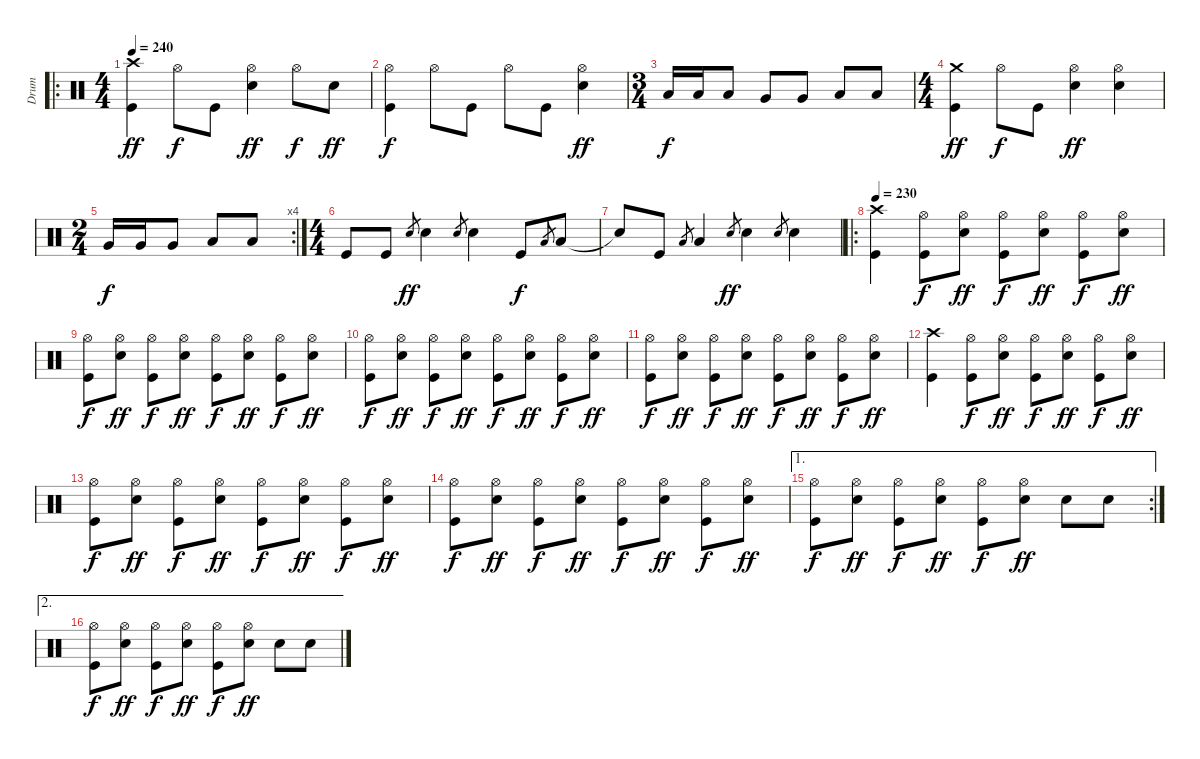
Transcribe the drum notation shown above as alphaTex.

\track ("Drum" "Drum") {instrument percussion}
\staff {score}
\articulation defaults
\ro
\ts (4 4)
\tempo 240
\clef neutral
\ks c
("Kick (hit)" "Crash high (hit)").4{dy ff} "Hi-Hat (open)".8{dy f} "Kick (hit)".8 ("Electric Snare (hit)" "Hi-Hat (open)").4{dy ff} "Hi-Hat (open)".8{dy f} "Electric Snare (hit)".8{dy ff} |
("Kick (hit)" "Hi-Hat (open)").4{dy f} "Hi-Hat (open)".8 "Kick (hit)".8 "Hi-Hat (open)".8 "Kick (hit)".8 ("Electric Snare (hit)" "Hi-Hat (open)").4{dy ff} |
\ts (3 4)
"Low Tom (hit)".16{dy f} "Low Tom (hit)".16 "Low Tom (hit)".8 "Very Low Tom (hit)".8 "Very Low Tom (hit)".8 "Low Floor Tom (hit)".8 "Low Floor Tom (hit)".8 |
\ts (4 4)
("Kick (hit)" "Crash medium (hit)").4{dy ff} "Hi-Hat (open)".8{dy f} "Kick (hit)".8 ("Electric Snare (hit)" "Hi-Hat (open)").4{dy ff} ("Electric Snare (hit)" "Hi-Hat (open)").4 |
\rc 4
\ts (2 4)
"Very Low Tom (hit)".16{dy f} "Very Low Tom (hit)".16 "Very Low Tom (hit)".8 "Low Floor Tom (hit)".8 "Low Floor Tom (hit)".8 |
\ts (4 4)
"Kick (hit)".8 "Kick (hit)".8 "Electric Snare (hit)".8{gr dy ff} "Electric Snare (hit)".4 "Electric Snare (hit)".8{gr} "Electric Snare (hit)".4 "Kick (hit)".8{dy f} "Low Floor Tom (hit)".8{gr} "Low Floor Tom (hit)".8 |
"Snare (hit)"{t}.8 "Kick (hit)".8 "Low Floor Tom (hit)".8{gr} "Low Floor Tom (hit)".4 "Electric Snare (hit)".8{gr dy ff} "Electric Snare (hit)".4 "Electric Snare (hit)".8{gr} "Electric Snare (hit)".4 |
\ro
\tempo 230
("Kick (hit)" "Crash high (hit)").4 ("Kick (hit)" "Hi-Hat (open)").8{dy f} ("Electric Snare (hit)" "Hi-Hat (open)").8{dy ff} ("Kick (hit)" "Hi-Hat (open)").8{dy f} ("Electric Snare (hit)" "Hi-Hat (open)").8{dy ff} ("Kick (hit)" "Hi-Hat (open)").8{dy f} ("Electric Snare (hit)" "Hi-Hat (open)").8{dy ff} |
("Kick (hit)" "Hi-Hat (open)").8{dy f} ("Electric Snare (hit)" "Hi-Hat (open)").8{dy ff} ("Kick (hit)" "Hi-Hat (open)").8{dy f} ("Electric Snare (hit)" "Hi-Hat (open)").8{dy ff} ("Kick (hit)" "Hi-Hat (open)").8{dy f} ("Electric Snare (hit)" "Hi-Hat (open)").8{dy ff} ("Kick (hit)" "Hi-Hat (open)").8{dy f} ("Electric Snare (hit)" "Hi-Hat (open)").8{dy ff} |
("Kick (hit)" "Hi-Hat (open)").8{dy f} ("Electric Snare (hit)" "Hi-Hat (open)").8{dy ff} ("Kick (hit)" "Hi-Hat (open)").8{dy f} ("Electric Snare (hit)" "Hi-Hat (open)").8{dy ff} ("Kick (hit)" "Hi-Hat (open)").8{dy f} ("Electric Snare (hit)" "Hi-Hat (open)").8{dy ff} ("Kick (hit)" "Hi-Hat (open)").8{dy f} ("Electric Snare (hit)" "Hi-Hat (open)").8{dy ff} |
("Kick (hit)" "Hi-Hat (open)").8{dy f} ("Electric Snare (hit)" "Hi-Hat (open)").8{dy ff} ("Kick (hit)" "Hi-Hat (open)").8{dy f} ("Electric Snare (hit)" "Hi-Hat (open)").8{dy ff} ("Kick (hit)" "Hi-Hat (open)").8{dy f} ("Electric Snare (hit)" "Hi-Hat (open)").8{dy ff} ("Kick (hit)" "Hi-Hat (open)").8{dy f} ("Electric Snare (hit)" "Hi-Hat (open)").8{dy ff} |
("Kick (hit)" "Crash high (hit)").4 ("Kick (hit)" "Hi-Hat (open)").8{dy f} ("Electric Snare (hit)" "Hi-Hat (open)").8{dy ff} ("Kick (hit)" "Hi-Hat (open)").8{dy f} ("Electric Snare (hit)" "Hi-Hat (open)").8{dy ff} ("Kick (hit)" "Hi-Hat (open)").8{dy f} ("Electric Snare (hit)" "Hi-Hat (open)").8{dy ff} |
("Kick (hit)" "Hi-Hat (open)").8{dy f} ("Electric Snare (hit)" "Hi-Hat (open)").8{dy ff} ("Kick (hit)" "Hi-Hat (open)").8{dy f} ("Electric Snare (hit)" "Hi-Hat (open)").8{dy ff} ("Kick (hit)" "Hi-Hat (open)").8{dy f} ("Electric Snare (hit)" "Hi-Hat (open)").8{dy ff} ("Kick (hit)" "Hi-Hat (open)").8{dy f} ("Electric Snare (hit)" "Hi-Hat (open)").8{dy ff} |
("Kick (hit)" "Hi-Hat (open)").8{dy f} ("Electric Snare (hit)" "Hi-Hat (open)").8{dy ff} ("Kick (hit)" "Hi-Hat (open)").8{dy f} ("Electric Snare (hit)" "Hi-Hat (open)").8{dy ff} ("Kick (hit)" "Hi-Hat (open)").8{dy f} ("Electric Snare (hit)" "Hi-Hat (open)").8{dy ff} ("Kick (hit)" "Hi-Hat (open)").8{dy f} ("Electric Snare (hit)" "Hi-Hat (open)").8{dy ff} |
\ae 1
\rc 2
("Kick (hit)" "Hi-Hat (open)").8{dy f} ("Electric Snare (hit)" "Hi-Hat (open)").8{dy ff} ("Kick (hit)" "Hi-Hat (open)").8{dy f} ("Electric Snare (hit)" "Hi-Hat (open)").8{dy ff} ("Kick (hit)" "Hi-Hat (open)").8{dy f} ("Electric Snare (hit)" "Hi-Hat (open)").8{dy ff} "Electric Snare (hit)".8 "Electric Snare (hit)".8 |
\ae 2
("Kick (hit)" "Hi-Hat (open)").8{dy f} ("Electric Snare (hit)" "Hi-Hat (open)").8{dy ff} ("Kick (hit)" "Hi-Hat (open)").8{dy f} ("Electric Snare (hit)" "Hi-Hat (open)").8{dy ff} ("Kick (hit)" "Hi-Hat (open)").8{dy f} ("Electric Snare (hit)" "Hi-Hat (open)").8{dy ff} "Electric Snare (hit)".8 "Electric Snare (hit)".8
